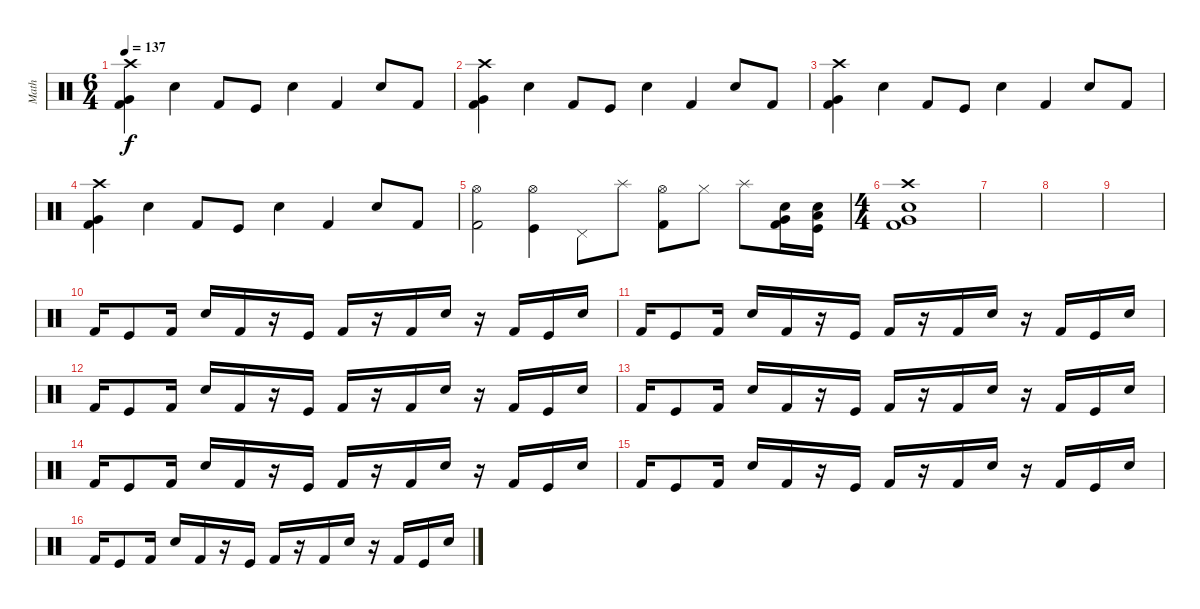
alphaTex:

\track ("Math" "Math") {instrument percussion}
\staff {score}
\articulation defaults
\ts (6 4)
\tempo 137
\clef neutral
\ks c
("Crash high (hit)" "Kick (hit) 2" "Very Low Tom (hit)").4{dy f} "Snare (hit) 2".4 "Kick (hit) 2".8 "Kick (hit)".8 "Snare (hit) 2".4 "Kick (hit) 2".4 "Snare (hit) 2".8 "Kick (hit) 2".8 |
("Crash high (hit)" "Kick (hit) 2" "Very Low Tom (hit)").4 "Snare (hit) 2".4 "Kick (hit) 2".8 "Kick (hit)".8 "Snare (hit) 2".4 "Kick (hit) 2".4 "Snare (hit) 2".8 "Kick (hit) 2".8 |
("Crash high (hit)" "Kick (hit) 2" "Very Low Tom (hit)").4 "Snare (hit) 2".4 "Kick (hit) 2".8 "Kick (hit)".8 "Snare (hit) 2".4 "Kick (hit) 2".4 "Snare (hit) 2".8 "Kick (hit) 2".8 |
("Crash high (hit)" "Kick (hit) 2" "Very Low Tom (hit)").4 "Snare (hit) 2".4 "Kick (hit) 2".8 "Kick (hit)".8 "Snare (hit) 2".4 "Kick (hit) 2".4 "Snare (hit) 2".8 "Kick (hit) 2".8 |
("Hi-Hat (open)" "Kick (hit) 2").2 ("Hi-Hat (open)" "Kick (hit)").4 "Pedal Hi-Hat (hit)".8 "Splash (hit)".8 ("Hi-Hat (open)" "Kick (hit) 2").8 "Hi-Hat (closed)".8 "Splash (hit)".8 ("Electric Snare (hit)" "Kick (hit) 2" "Very Low Tom (hit)").16 ("Electric Snare (hit)" "Kick (hit)" "Low Tom (hit)").16 |
\ts (4 4)
("Crash high (hit)" "Very Low Tom (hit)" "Kick (hit) 2" "Snare (hit) 2").1 |
|
|
|
"Kick (hit) 2".16 "Kick (hit)".8 "Kick (hit) 2".16 "Snare (hit) 2".16 "Kick (hit) 2".16 r.16 "Kick (hit)".16 "Kick (hit) 2".16 r.16 "Kick (hit) 2".16 "Snare (hit) 2".16 r.16 "Kick (hit) 2".16 "Kick (hit)".16 "Snare (hit) 2".16 |
"Kick (hit) 2".16 "Kick (hit)".8 "Kick (hit) 2".16 "Snare (hit) 2".16 "Kick (hit) 2".16 r.16 "Kick (hit)".16 "Kick (hit) 2".16 r.16 "Kick (hit) 2".16 "Snare (hit) 2".16 r.16 "Kick (hit) 2".16 "Kick (hit)".16 "Snare (hit) 2".16 |
"Kick (hit) 2".16 "Kick (hit)".8 "Kick (hit) 2".16 "Snare (hit) 2".16 "Kick (hit) 2".16 r.16 "Kick (hit)".16 "Kick (hit) 2".16 r.16 "Kick (hit) 2".16 "Snare (hit) 2".16 r.16 "Kick (hit) 2".16 "Kick (hit)".16 "Snare (hit) 2".16 |
"Kick (hit) 2".16 "Kick (hit)".8 "Kick (hit) 2".16 "Snare (hit) 2".16 "Kick (hit) 2".16 r.16 "Kick (hit)".16 "Kick (hit) 2".16 r.16 "Kick (hit) 2".16 "Snare (hit) 2".16 r.16 "Kick (hit) 2".16 "Kick (hit)".16 "Snare (hit) 2".16 |
"Kick (hit) 2".16 "Kick (hit)".8 "Kick (hit) 2".16 "Snare (hit) 2".16 "Kick (hit) 2".16 r.16 "Kick (hit)".16 "Kick (hit) 2".16 r.16 "Kick (hit) 2".16 "Snare (hit) 2".16 r.16 "Kick (hit) 2".16 "Kick (hit)".16 "Snare (hit) 2".16 |
"Kick (hit) 2".16 "Kick (hit)".8 "Kick (hit) 2".16 "Snare (hit) 2".16 "Kick (hit) 2".16 r.16 "Kick (hit)".16 "Kick (hit) 2".16 r.16 "Kick (hit) 2".16 "Snare (hit) 2".16 r.16 "Kick (hit) 2".16 "Kick (hit)".16 "Snare (hit) 2".16 |
"Kick (hit) 2".16 "Kick (hit)".8 "Kick (hit) 2".16 "Snare (hit) 2".16 "Kick (hit) 2".16 r.16 "Kick (hit)".16 "Kick (hit) 2".16 r.16 "Kick (hit) 2".16 "Snare (hit) 2".16 r.16 "Kick (hit) 2".16 "Kick (hit)".16 "Snare (hit) 2".16
